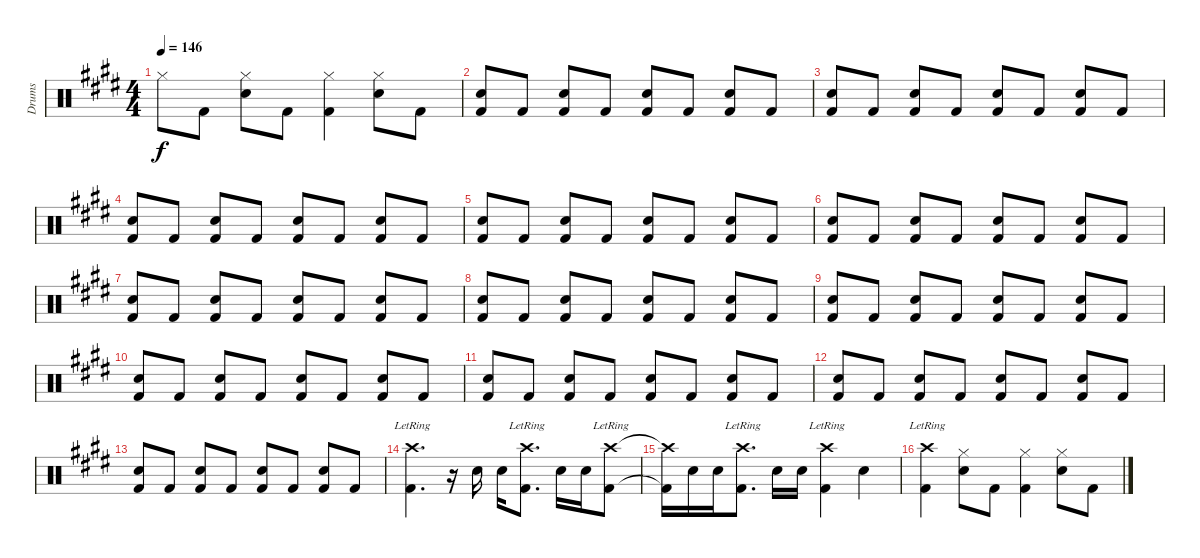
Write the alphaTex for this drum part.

\track ("Drums" "Drums") {instrument percussion}
\staff {score}
\articulation defaults
\ts (4 4)
\tempo 146
\clef neutral
\ks e "Hi-Hat (closed)".8{dy f} "Kick (hit) 2".8
("Snare (hit) 2" "Hi-Hat (closed)").8 "Kick (hit) 2".8 ("Kick (hit) 2" "Hi-Hat (closed)").4 ("Snare (hit) 2" "Hi-Hat (closed)").8 "Kick (hit) 2".8 |
("Kick (hit) 2" "Snare (hit) 2").8 "Kick (hit) 2".8 ("Kick (hit) 2" "Snare (hit) 2").8 "Kick (hit) 2".8 ("Kick (hit) 2" "Snare (hit) 2").8 "Kick (hit) 2".8 ("Kick (hit) 2" "Snare (hit) 2").8 "Kick (hit) 2".8 |
("Kick (hit) 2" "Snare (hit) 2").8 "Kick (hit) 2".8 ("Kick (hit) 2" "Snare (hit) 2").8 "Kick (hit) 2".8 ("Kick (hit) 2" "Snare (hit) 2").8 "Kick (hit) 2".8 ("Kick (hit) 2" "Snare (hit) 2").8 "Kick (hit) 2".8 |
("Kick (hit) 2" "Snare (hit) 2").8 "Kick (hit) 2".8 ("Kick (hit) 2" "Snare (hit) 2").8 "Kick (hit) 2".8 ("Kick (hit) 2" "Snare (hit) 2").8 "Kick (hit) 2".8 ("Kick (hit) 2" "Snare (hit) 2").8 "Kick (hit) 2".8 |
("Kick (hit) 2" "Snare (hit) 2").8 "Kick (hit) 2".8 ("Kick (hit) 2" "Snare (hit) 2").8 "Kick (hit) 2".8 ("Kick (hit) 2" "Snare (hit) 2").8 "Kick (hit) 2".8 ("Kick (hit) 2" "Snare (hit) 2").8 "Kick (hit) 2".8 |
("Kick (hit) 2" "Snare (hit) 2").8 "Kick (hit) 2".8 ("Kick (hit) 2" "Snare (hit) 2").8 "Kick (hit) 2".8 ("Kick (hit) 2" "Snare (hit) 2").8 "Kick (hit) 2".8 ("Kick (hit) 2" "Snare (hit) 2").8 "Kick (hit) 2".8 |
("Kick (hit) 2" "Snare (hit) 2").8 "Kick (hit) 2".8 ("Kick (hit) 2" "Snare (hit) 2").8 "Kick (hit) 2".8 ("Kick (hit) 2" "Snare (hit) 2").8 "Kick (hit) 2".8 ("Kick (hit) 2" "Snare (hit) 2").8 "Kick (hit) 2".8 |
("Kick (hit) 2" "Snare (hit) 2").8 "Kick (hit) 2".8 ("Kick (hit) 2" "Snare (hit) 2").8 "Kick (hit) 2".8 ("Kick (hit) 2" "Snare (hit) 2").8 "Kick (hit) 2".8 ("Kick (hit) 2" "Snare (hit) 2").8 "Kick (hit) 2".8 |
("Kick (hit) 2" "Snare (hit) 2").8 "Kick (hit) 2".8 ("Kick (hit) 2" "Snare (hit) 2").8 "Kick (hit) 2".8 ("Kick (hit) 2" "Snare (hit) 2").8 "Kick (hit) 2".8 ("Kick (hit) 2" "Snare (hit) 2").8 "Kick (hit) 2".8 |
("Kick (hit) 2" "Snare (hit) 2").8 "Kick (hit) 2".8 ("Kick (hit) 2" "Snare (hit) 2").8 "Kick (hit) 2".8 ("Kick (hit) 2" "Snare (hit) 2").8 "Kick (hit) 2".8 ("Kick (hit) 2" "Snare (hit) 2").8 "Kick (hit) 2".8 |
("Kick (hit) 2" "Snare (hit) 2").8 "Kick (hit) 2".8 ("Kick (hit) 2" "Snare (hit) 2").8 "Kick (hit) 2".8 ("Kick (hit) 2" "Snare (hit) 2").8 "Kick (hit) 2".8 ("Kick (hit) 2" "Snare (hit) 2").8 "Kick (hit) 2".8 |
("Kick (hit) 2" "Snare (hit) 2").8 "Kick (hit) 2".8 ("Kick (hit) 2" "Snare (hit) 2").8 "Kick (hit) 2".8 ("Kick (hit) 2" "Snare (hit) 2").8 "Kick (hit) 2".8 ("Kick (hit) 2" "Snare (hit) 2").8 "Kick (hit) 2".8 |
("Kick (hit) 2" "Snare (hit) 2").8 "Kick (hit) 2".8 ("Kick (hit) 2" "Snare (hit) 2").8 "Kick (hit) 2".8 ("Kick (hit) 2" "Snare (hit) 2").8 "Kick (hit) 2".8 ("Kick (hit) 2" "Snare (hit) 2").8 "Kick (hit) 2".8 |
("Kick (hit) 2" "Crash high (hit)"{lr}).4{d} r.16 "Snare (hit) 2".16 "Snare (hit) 2".16 ("Kick (hit) 2" "Crash high (hit)"{lr}).8{d} "Snare (hit) 2".16 "Snare (hit) 2".16 ("Kick (hit) 2" "Crash high (hit)"{lr}).8 |
("Kick (hit) 2"{t} "Crash high (hit)"{t}).16 "Snare (hit) 2".16 "Snare (hit) 2".16 ("Kick (hit) 2" "Crash high (hit)"{lr}).8{d} "Snare (hit) 2".16 "Snare (hit) 2".16 ("Kick (hit) 2" "Crash high (hit)"{lr}).4 "Snare (hit) 2".4 |
("Kick (hit) 2" "Crash high (hit)"{lr}).4 ("Snare (hit) 2" "Hi-Hat (closed)").8 "Kick (hit) 2".8 ("Kick (hit) 2" "Hi-Hat (closed)").4 ("Snare (hit) 2" "Hi-Hat (closed)").8 "Kick (hit) 2".8
